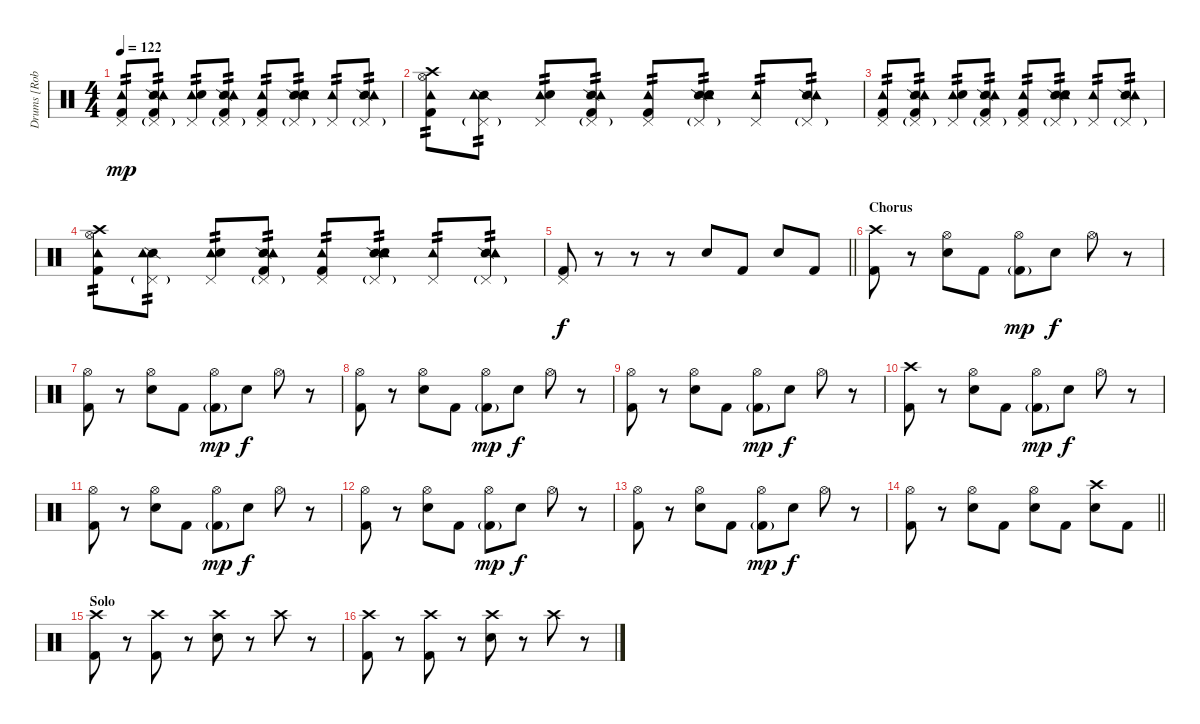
\track ("Drums [Rob Bourdon]" "Drums [Rob") {solo instrument percussion}
\staff {score}
\articulation defaults
\ts (4 4)
\tempo 122
\clef neutral
\ks c
("Pedal Hi-Hat (hit)" "Tambourine (hit)" "Kick (hit) 2").8{tp 2 dy mp} ("Snare (side stick) 2" "Pedal Hi-Hat (hit)"{g} "Tambourine (hit)" "Kick (hit) 2").8{tp 2} ("Pedal Hi-Hat (hit)" "Tambourine (hit)" "Electric Snare (hit)").8{tp 2} ("Snare (side stick) 2" "Pedal Hi-Hat (hit)"{g} "Tambourine (hit)" "Kick (hit) 2").8{tp 2} ("Pedal Hi-Hat (hit)" "Tambourine (hit)" "Kick (hit) 2").8{tp 2} ("Snare (side stick) 2" "Pedal Hi-Hat (hit)"{g} "Tambourine (hit)" "Electric Snare (hit)").8{tp 2} ("Pedal Hi-Hat (hit)" "Tambourine (hit)").8{tp 2} ("Snare (side stick) 2" "Pedal Hi-Hat (hit)"{g} "Tambourine (hit)").8{tp 2} |
("Crash high (hit)" "Hi-Hat (open)" "Tambourine (hit)" "Kick (hit) 2").8{tp 2} ("Snare (side stick) 2" "Pedal Hi-Hat (hit)"{g} "Tambourine (hit)").8{tp 2} ("Pedal Hi-Hat (hit)" "Tambourine (hit)" "Electric Snare (hit)").8{tp 2} ("Snare (side stick) 2" "Pedal Hi-Hat (hit)"{g} "Tambourine (hit)" "Kick (hit) 2").8{tp 2} ("Pedal Hi-Hat (hit)" "Tambourine (hit)" "Kick (hit) 2").8{tp 2} ("Snare (side stick) 2" "Pedal Hi-Hat (hit)"{g} "Tambourine (hit)" "Electric Snare (hit)").8{tp 2} ("Pedal Hi-Hat (hit)" "Tambourine (hit)").8{tp 2} ("Snare (side stick) 2" "Pedal Hi-Hat (hit)"{g} "Tambourine (hit)").8{tp 2} |
("Pedal Hi-Hat (hit)" "Tambourine (hit)" "Kick (hit) 2").8{tp 2} ("Snare (side stick) 2" "Pedal Hi-Hat (hit)"{g} "Tambourine (hit)" "Kick (hit) 2").8{tp 2} ("Pedal Hi-Hat (hit)" "Tambourine (hit)" "Electric Snare (hit)").8{tp 2} ("Snare (side stick) 2" "Pedal Hi-Hat (hit)"{g} "Tambourine (hit)" "Kick (hit) 2").8{tp 2} ("Pedal Hi-Hat (hit)" "Tambourine (hit)" "Kick (hit) 2").8{tp 2} ("Snare (side stick) 2" "Pedal Hi-Hat (hit)"{g} "Tambourine (hit)" "Electric Snare (hit)").8{tp 2} ("Pedal Hi-Hat (hit)" "Tambourine (hit)").8{tp 2} ("Snare (side stick) 2" "Pedal Hi-Hat (hit)"{g} "Tambourine (hit)").8{tp 2} |
("Crash high (hit)" "Hi-Hat (open)" "Tambourine (hit)" "Kick (hit) 2").8{tp 2} ("Snare (side stick) 2" "Pedal Hi-Hat (hit)"{g} "Tambourine (hit)").8{tp 2} ("Pedal Hi-Hat (hit)" "Tambourine (hit)" "Electric Snare (hit)").8{tp 2} ("Snare (side stick) 2" "Pedal Hi-Hat (hit)"{g} "Tambourine (hit)" "Kick (hit) 2").8{tp 2} ("Pedal Hi-Hat (hit)" "Tambourine (hit)" "Kick (hit) 2").8{tp 2} ("Snare (side stick) 2" "Pedal Hi-Hat (hit)"{g} "Tambourine (hit)" "Electric Snare (hit)").8{tp 2} ("Pedal Hi-Hat (hit)" "Tambourine (hit)").8{tp 2} ("Snare (side stick) 2" "Pedal Hi-Hat (hit)"{g} "Tambourine (hit)").8{tp 2} |
\barLineRight lightlight
("Pedal Hi-Hat (hit)" "Kick (hit) 2").8{dy f} r.8 r.8 r.8 "Electric Snare (hit)".8 "Kick (hit) 2".8 "Electric Snare (hit)".8 "Kick (hit) 2".8 |
\section ("" "Chorus")
("Crash high (hit)" "Kick (hit) 2").8 r.8 ("Hi-Hat (open)" "Electric Snare (hit)").8 "Kick (hit) 2".8 ("Hi-Hat (open)" "Kick (hit) 2"{g}).8{dy mp} "Electric Snare (hit)".8{dy f} "Hi-Hat (open)".8 r.8 |
("Hi-Hat (open)" "Kick (hit) 2").8 r.8 ("Hi-Hat (open)" "Electric Snare (hit)").8 "Kick (hit) 2".8 ("Hi-Hat (open)" "Kick (hit) 2"{g}).8{dy mp} "Electric Snare (hit)".8{dy f} "Hi-Hat (open)".8 r.8 |
("Hi-Hat (open)" "Kick (hit) 2").8 r.8 ("Hi-Hat (open)" "Electric Snare (hit)").8 "Kick (hit) 2".8 ("Hi-Hat (open)" "Kick (hit) 2"{g}).8{dy mp} "Electric Snare (hit)".8{dy f} "Hi-Hat (open)".8 r.8 |
("Hi-Hat (open)" "Kick (hit) 2").8 r.8 ("Hi-Hat (open)" "Electric Snare (hit)").8 "Kick (hit) 2".8 ("Hi-Hat (open)" "Kick (hit) 2"{g}).8{dy mp} "Electric Snare (hit)".8{dy f} "Hi-Hat (open)".8 r.8 |
("Crash high (hit)" "Kick (hit) 2").8 r.8 ("Hi-Hat (open)" "Electric Snare (hit)").8 "Kick (hit) 2".8 ("Hi-Hat (open)" "Kick (hit) 2"{g}).8{dy mp} "Electric Snare (hit)".8{dy f} "Hi-Hat (open)".8 r.8 |
("Hi-Hat (open)" "Kick (hit) 2").8 r.8 ("Hi-Hat (open)" "Electric Snare (hit)").8 "Kick (hit) 2".8 ("Hi-Hat (open)" "Kick (hit) 2"{g}).8{dy mp} "Electric Snare (hit)".8{dy f} "Hi-Hat (open)".8 r.8 |
("Hi-Hat (open)" "Kick (hit) 2").8 r.8 ("Hi-Hat (open)" "Electric Snare (hit)").8 "Kick (hit) 2".8 ("Hi-Hat (open)" "Kick (hit) 2"{g}).8{dy mp} "Electric Snare (hit)".8{dy f} "Hi-Hat (open)".8 r.8 |
("Hi-Hat (open)" "Kick (hit) 2").8 r.8 ("Hi-Hat (open)" "Electric Snare (hit)").8 "Kick (hit) 2".8 ("Hi-Hat (open)" "Kick (hit) 2"{g}).8{dy mp} "Electric Snare (hit)".8{dy f} "Hi-Hat (open)".8 r.8 |
\barLineRight lightlight
("Hi-Hat (open)" "Kick (hit) 2").8 r.8 ("Hi-Hat (open)" "Electric Snare (hit)").8 "Kick (hit) 2".8 ("Hi-Hat (open)" "Electric Snare (hit)").8 "Kick (hit) 2".8 ("Crash high (hit)" "Electric Snare (hit)").8 "Kick (hit) 2".8 |
\section ("" "Solo")
("Crash high (hit)" "Kick (hit) 2").8 r.8 ("Crash high (hit)" "Kick (hit) 2").8 r.8 ("Crash high (hit)" "Electric Snare (hit)").8 r.8 "Crash high (hit)".8 r.8 |
("Crash high (hit)" "Kick (hit) 2").8 r.8 ("Crash high (hit)" "Kick (hit) 2").8 r.8 ("Crash high (hit)" "Electric Snare (hit)").8 r.8 "Crash high (hit)".8 r.8
